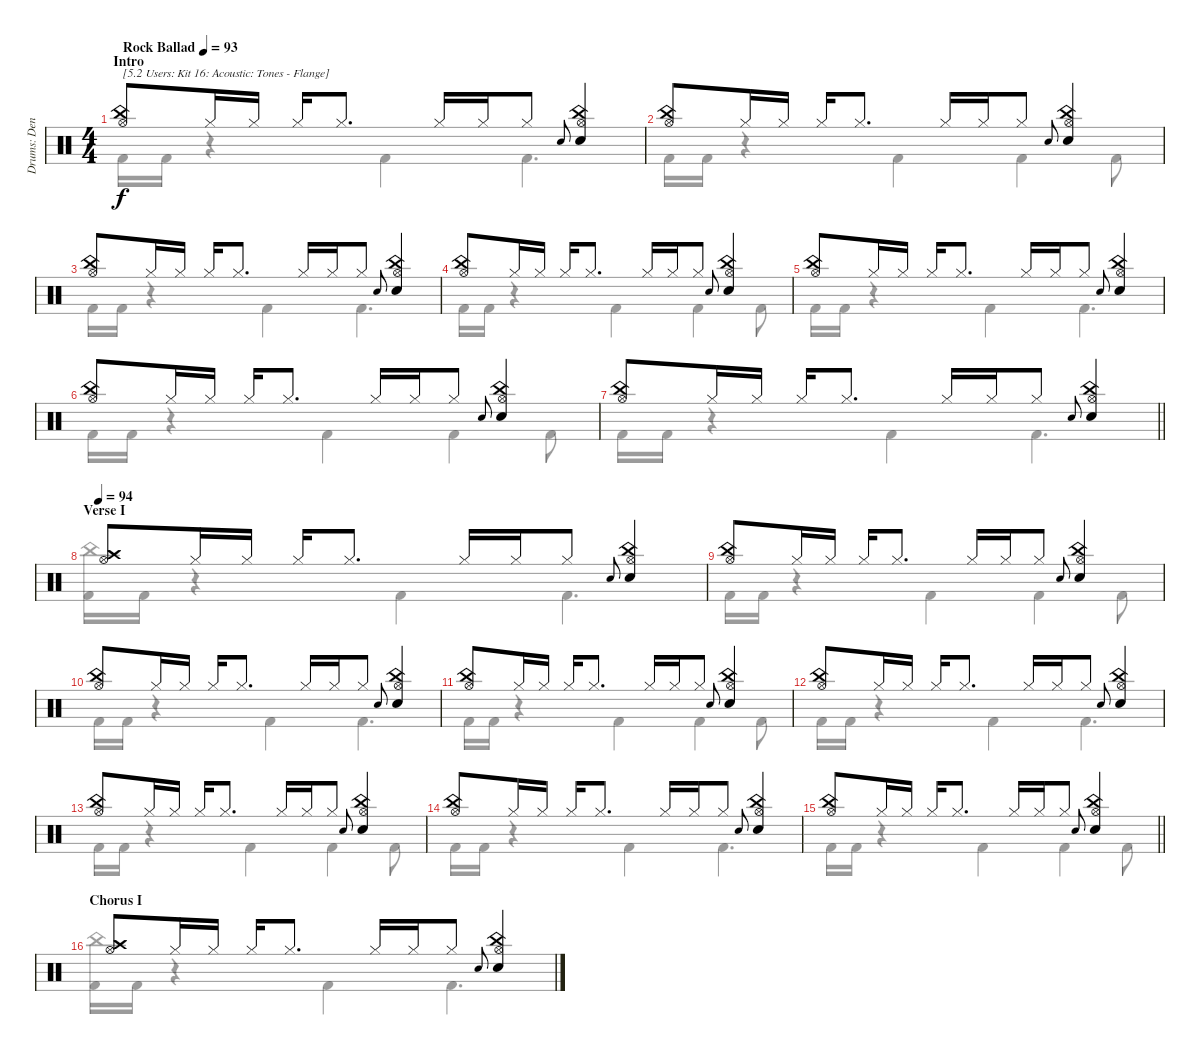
\track ("Drums: Denny" "Drums: Den") {instrument percussion}
\staff {score}
\articulation defaults
\voice
\ts (4 4)
\section ("" "Intro")
\tempo (93 "Rock Ballad")
\clef neutral
\ks c
("China (hit)" "Hi-Hat (open)").8{txt "[5.2 Users: Kit 16: Acoustic: Tones - Flange]" dy f} "Hi-Hat (closed)".16 "Hi-Hat (closed)".16 "Hi-Hat (closed)".16 "Hi-Hat (closed)".8{d} "Hi-Hat (closed)".16 "Hi-Hat (closed)".16 "Hi-Hat (closed)".8 "Electric Snare (hit)".8{gr onbeat} ("China (hit)" "Hi-Hat (open)" "Snare (hit) 2").4 |
("China (hit)" "Hi-Hat (open)").8 "Hi-Hat (closed)".16 "Hi-Hat (closed)".16 "Hi-Hat (closed)".16 "Hi-Hat (closed)".8{d} "Hi-Hat (closed)".16 "Hi-Hat (closed)".16 "Hi-Hat (closed)".8 "Electric Snare (hit)".8{gr onbeat} ("China (hit)" "Hi-Hat (open)" "Snare (hit) 2").4 |
("China (hit)" "Hi-Hat (open)").8 "Hi-Hat (closed)".16 "Hi-Hat (closed)".16 "Hi-Hat (closed)".16 "Hi-Hat (closed)".8{d} "Hi-Hat (closed)".16 "Hi-Hat (closed)".16 "Hi-Hat (closed)".8 "Electric Snare (hit)".8{gr onbeat} ("China (hit)" "Hi-Hat (open)" "Snare (hit) 2").4 |
("China (hit)" "Hi-Hat (open)").8 "Hi-Hat (closed)".16 "Hi-Hat (closed)".16 "Hi-Hat (closed)".16 "Hi-Hat (closed)".8{d} "Hi-Hat (closed)".16 "Hi-Hat (closed)".16 "Hi-Hat (closed)".8 "Electric Snare (hit)".8{gr onbeat} ("China (hit)" "Hi-Hat (open)" "Snare (hit) 2").4 |
("China (hit)" "Hi-Hat (open)").8 "Hi-Hat (closed)".16 "Hi-Hat (closed)".16 "Hi-Hat (closed)".16 "Hi-Hat (closed)".8{d} "Hi-Hat (closed)".16 "Hi-Hat (closed)".16 "Hi-Hat (closed)".8 "Electric Snare (hit)".8{gr onbeat} ("China (hit)" "Hi-Hat (open)" "Snare (hit) 2").4 |
("China (hit)" "Hi-Hat (open)").8 "Hi-Hat (closed)".16 "Hi-Hat (closed)".16 "Hi-Hat (closed)".16 "Hi-Hat (closed)".8{d} "Hi-Hat (closed)".16 "Hi-Hat (closed)".16 "Hi-Hat (closed)".8 "Electric Snare (hit)".8{gr onbeat} ("China (hit)" "Hi-Hat (open)" "Snare (hit) 2").4 |
\barLineRight lightlight
("China (hit)" "Hi-Hat (open)").8 "Hi-Hat (closed)".16 "Hi-Hat (closed)".16 "Hi-Hat (closed)".16 "Hi-Hat (closed)".8{d} "Hi-Hat (closed)".16 "Hi-Hat (closed)".16 "Hi-Hat (closed)".8 "Electric Snare (hit)".8{gr onbeat} ("China (hit)" "Hi-Hat (open)" "Snare (hit) 2").4 |
\section ("" "Verse I")
\tempo 94
("Crash high (hit)" "Hi-Hat (open)").8 "Hi-Hat (closed)".16 "Hi-Hat (closed)".16 "Hi-Hat (closed)".16 "Hi-Hat (closed)".8{d} "Hi-Hat (closed)".16 "Hi-Hat (closed)".16 "Hi-Hat (closed)".8 "Electric Snare (hit)".8{gr onbeat} ("China (hit)" "Hi-Hat (open)" "Snare (hit) 2").4 |
("China (hit)" "Hi-Hat (open)").8 "Hi-Hat (closed)".16 "Hi-Hat (closed)".16 "Hi-Hat (closed)".16 "Hi-Hat (closed)".8{d} "Hi-Hat (closed)".16 "Hi-Hat (closed)".16 "Hi-Hat (closed)".8 "Electric Snare (hit)".8{gr onbeat} ("China (hit)" "Hi-Hat (open)" "Snare (hit) 2").4 |
("China (hit)" "Hi-Hat (open)").8 "Hi-Hat (closed)".16 "Hi-Hat (closed)".16 "Hi-Hat (closed)".16 "Hi-Hat (closed)".8{d} "Hi-Hat (closed)".16 "Hi-Hat (closed)".16 "Hi-Hat (closed)".8 "Electric Snare (hit)".8{gr onbeat} ("China (hit)" "Hi-Hat (open)" "Snare (hit) 2").4 |
("China (hit)" "Hi-Hat (open)").8 "Hi-Hat (closed)".16 "Hi-Hat (closed)".16 "Hi-Hat (closed)".16 "Hi-Hat (closed)".8{d} "Hi-Hat (closed)".16 "Hi-Hat (closed)".16 "Hi-Hat (closed)".8 "Electric Snare (hit)".8{gr onbeat} ("China (hit)" "Hi-Hat (open)" "Snare (hit) 2").4 |
("China (hit)" "Hi-Hat (open)").8 "Hi-Hat (closed)".16 "Hi-Hat (closed)".16 "Hi-Hat (closed)".16 "Hi-Hat (closed)".8{d} "Hi-Hat (closed)".16 "Hi-Hat (closed)".16 "Hi-Hat (closed)".8 "Electric Snare (hit)".8{gr onbeat} ("China (hit)" "Hi-Hat (open)" "Snare (hit) 2").4 |
("China (hit)" "Hi-Hat (open)").8 "Hi-Hat (closed)".16 "Hi-Hat (closed)".16 "Hi-Hat (closed)".16 "Hi-Hat (closed)".8{d} "Hi-Hat (closed)".16 "Hi-Hat (closed)".16 "Hi-Hat (closed)".8 "Electric Snare (hit)".8{gr onbeat} ("China (hit)" "Hi-Hat (open)" "Snare (hit) 2").4 |
("China (hit)" "Hi-Hat (open)").8 "Hi-Hat (closed)".16 "Hi-Hat (closed)".16 "Hi-Hat (closed)".16 "Hi-Hat (closed)".8{d} "Hi-Hat (closed)".16 "Hi-Hat (closed)".16 "Hi-Hat (closed)".8 "Electric Snare (hit)".8{gr onbeat} ("China (hit)" "Hi-Hat (open)" "Snare (hit) 2").4 |
\barLineRight lightlight
("China (hit)" "Hi-Hat (open)").8 "Hi-Hat (closed)".16 "Hi-Hat (closed)".16 "Hi-Hat (closed)".16 "Hi-Hat (closed)".8{d} "Hi-Hat (closed)".16 "Hi-Hat (closed)".16 "Hi-Hat (closed)".8 "Electric Snare (hit)".8{gr onbeat} ("China (hit)" "Hi-Hat (open)" "Snare (hit) 2").4 |
\section ("" "Chorus I")
("Crash high (hit)" "Hi-Hat (open)").8 "Hi-Hat (closed)".16 "Hi-Hat (closed)".16 "Hi-Hat (closed)".16 "Hi-Hat (closed)".8{d} "Hi-Hat (closed)".16 "Hi-Hat (closed)".16 "Hi-Hat (closed)".8 "Electric Snare (hit)".8{gr onbeat} ("China (hit)" "Hi-Hat (open)" "Snare (hit) 2").4
\voice
\clef neutral
\ottava regular
\simile none
\ks c "Kick (hit) 2".16{dy f} "Kick (hit) 2".16
r.4 "Kick (hit) 2".4 "Kick (hit) 2".4{d} |
"Kick (hit) 2".16 "Kick (hit) 2".16 r.4 "Kick (hit) 2".4 "Kick (hit) 2".4 "Kick (hit) 2".8 |
"Kick (hit) 2".16 "Kick (hit) 2".16 r.4 "Kick (hit) 2".4 "Kick (hit) 2".4{d} |
"Kick (hit) 2".16 "Kick (hit) 2".16 r.4 "Kick (hit) 2".4 "Kick (hit) 2".4 "Kick (hit) 2".8 |
"Kick (hit) 2".16 "Kick (hit) 2".16 r.4 "Kick (hit) 2".4 "Kick (hit) 2".4{d} |
"Kick (hit) 2".16 "Kick (hit) 2".16 r.4 "Kick (hit) 2".4 "Kick (hit) 2".4 "Kick (hit) 2".8 |
\barLineRight lightlight "Kick (hit) 2".16 "Kick (hit) 2".16
r.4 "Kick (hit) 2".4 "Kick (hit) 2".4{d} |
("China (hit)" "Kick (hit) 2").16 "Kick (hit) 2".16 r.4 "Kick (hit) 2".4 "Kick (hit) 2".4{d} |
"Kick (hit) 2".16 "Kick (hit) 2".16 r.4 "Kick (hit) 2".4 "Kick (hit) 2".4 "Kick (hit) 2".8 |
"Kick (hit) 2".16 "Kick (hit) 2".16 r.4 "Kick (hit) 2".4 "Kick (hit) 2".4{d} |
"Kick (hit) 2".16 "Kick (hit) 2".16 r.4 "Kick (hit) 2".4 "Kick (hit) 2".4 "Kick (hit) 2".8 |
"Kick (hit) 2".16 "Kick (hit) 2".16 r.4 "Kick (hit) 2".4 "Kick (hit) 2".4{d} |
"Kick (hit) 2".16 "Kick (hit) 2".16 r.4 "Kick (hit) 2".4 "Kick (hit) 2".4 "Kick (hit) 2".8 |
"Kick (hit) 2".16 "Kick (hit) 2".16 r.4 "Kick (hit) 2".4 "Kick (hit) 2".4{d} |
\barLineRight lightlight "Kick (hit) 2".16 "Kick (hit) 2".16
r.4 "Kick (hit) 2".4 "Kick (hit) 2".4 "Kick (hit) 2".8 |
("China (hit)" "Kick (hit) 2").16 "Kick (hit) 2".16 r.4 "Kick (hit) 2".4 "Kick (hit) 2".4{d}
